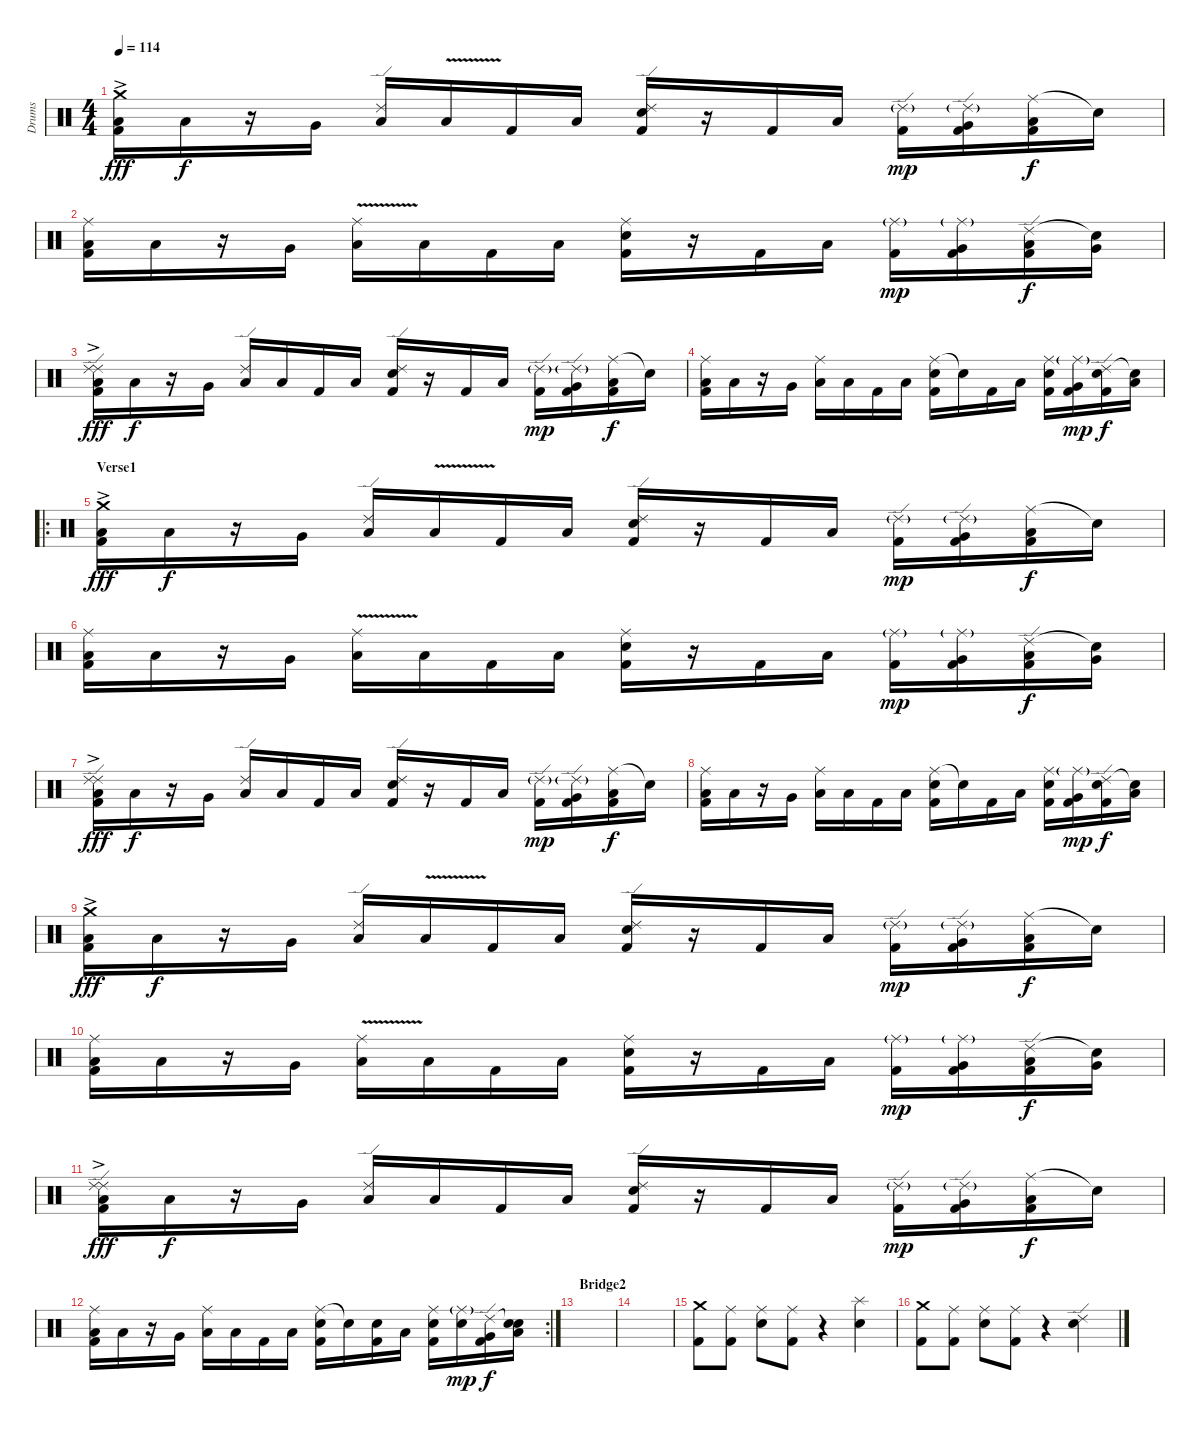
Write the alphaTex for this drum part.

\track ("Drums" "Drums") {instrument percussion}
\staff {score}
\articulation defaults
\ts (4 4)
\tempo 114
\clef neutral
\ks c
("Crash medium (hit)"{ac} "Low Floor Tom (hit)"{ac} "Kick (hit) 2"{ac}).16{dy fff} "Low Floor Tom (hit)".16{dy f} r.16 "Very Low Tom (hit)".16 ("Ride (edge) 2" "Low Floor Tom (hit)").16 "Low Floor Tom (hit)"{v}.16 "Kick (hit) 2".16 "Low Tom (hit)".16 ("Ride (edge) 2" "Electric Snare (hit)" "Kick (hit) 2").16 r.16 "Kick (hit) 2".16 "Low Floor Tom (hit)".16 ("Ride (edge) 2"{g} "Kick (hit) 2").16{dy mp} ("Ride (edge) 2"{g} "Very Low Tom (hit)" "Kick (hit) 2").16 ("Ride (middle)" "Low Tom (hit)" "Kick (hit) 2").16{dy f} "Snare (hit)"{t}.16 |
("Ride (middle)" "Low Floor Tom (hit)" "Kick (hit) 2").16 "Low Floor Tom (hit)".16 r.16 "Very Low Tom (hit)".16 ("Ride (middle)"{v} "Low Floor Tom (hit)").16 "Low Floor Tom (hit)".16 "Kick (hit) 2".16 "Low Tom (hit)".16 ("Ride (middle)" "Electric Snare (hit)" "Kick (hit) 2").16 r.16 "Kick (hit) 2".16 "Low Floor Tom (hit)".16 ("Ride (middle)"{g} "Kick (hit) 2").16{dy mp} ("Ride (middle)"{g} "Very Low Tom (hit)" "Kick (hit) 2").16 ("Ride (edge) 2" "Low Tom (hit)" "Kick (hit) 2").16{dy f} ("Snare (hit)"{t} "Very Low Tom (hit)").16 |
("Ride (edge) 2" "Ride (edge) 2"{ac} "Low Floor Tom (hit)" "Kick (hit) 2"{ac}).16{dy fff} "Low Floor Tom (hit)".16{dy f} r.16 "Very Low Tom (hit)".16 ("Ride (edge) 2" "Low Floor Tom (hit)").16 "Low Floor Tom (hit)".16 "Kick (hit) 2".16 "Low Tom (hit)".16 ("Ride (edge) 2" "Electric Snare (hit)" "Kick (hit) 2").16 r.16 "Kick (hit) 2".16 "Low Floor Tom (hit)".16 ("Ride (edge) 2"{g} "Kick (hit) 2").16{dy mp} ("Ride (edge) 2"{g} "Very Low Tom (hit)" "Kick (hit) 2").16 ("Ride (middle)" "Low Tom (hit)" "Kick (hit) 2").16{dy f} "Snare (hit)"{t}.16 |
("Ride (middle)" "Low Floor Tom (hit)" "Kick (hit) 2").16 "Low Floor Tom (hit)".16 r.16 "Very Low Tom (hit)".16 ("Ride (middle)" "Low Floor Tom (hit)").16 "Low Floor Tom (hit)".16 "Kick (hit) 2".16 "Low Tom (hit)".16 ("Ride (middle)" "Electric Snare (hit)"{tr (40 32)} "Kick (hit) 2").16 "Electric Snare (hit)"{t}.16 "Kick (hit) 2".16 "Low Floor Tom (hit)".16 ("Ride (middle)" "Electric Snare (hit)" "Kick (hit) 2").16 ("Ride (middle)"{g} "Very Low Tom (hit)" "Kick (hit) 2").16{dy mp} ("Ride (edge) 2" "Electric Snare (hit)" "Kick (hit) 2").16{dy f} ("Snare (hit)"{t} "Low Floor Tom (hit)").16 |
\ro
\section ("" "Verse1")
("Crash medium (hit)"{ac} "Low Floor Tom (hit)"{ac} "Kick (hit) 2"{ac}).16{dy fff} "Low Floor Tom (hit)".16{dy f} r.16 "Very Low Tom (hit)".16 ("Ride (edge) 2" "Low Floor Tom (hit)").16 "Low Floor Tom (hit)"{v}.16 "Kick (hit) 2".16 "Low Tom (hit)".16 ("Ride (edge) 2" "Electric Snare (hit)" "Kick (hit) 2").16 r.16 "Kick (hit) 2".16 "Low Floor Tom (hit)".16 ("Ride (edge) 2"{g} "Kick (hit) 2").16{dy mp} ("Ride (edge) 2"{g} "Very Low Tom (hit)" "Kick (hit) 2").16 ("Ride (middle)" "Low Tom (hit)" "Kick (hit) 2").16{dy f} "Snare (hit)"{t}.16 |
("Ride (middle)" "Low Floor Tom (hit)" "Kick (hit) 2").16 "Low Floor Tom (hit)".16 r.16 "Very Low Tom (hit)".16 ("Ride (middle)"{v} "Low Floor Tom (hit)").16 "Low Floor Tom (hit)".16 "Kick (hit) 2".16 "Low Tom (hit)".16 ("Ride (middle)" "Electric Snare (hit)" "Kick (hit) 2").16 r.16 "Kick (hit) 2".16 "Low Floor Tom (hit)".16 ("Ride (middle)"{g} "Kick (hit) 2").16{dy mp} ("Ride (middle)"{g} "Very Low Tom (hit)" "Kick (hit) 2").16 ("Ride (edge) 2" "Low Tom (hit)" "Kick (hit) 2").16{dy f} ("Snare (hit)"{t} "Very Low Tom (hit)").16 |
("Ride (edge) 2" "Ride (edge) 2"{ac} "Low Floor Tom (hit)" "Kick (hit) 2"{ac}).16{dy fff} "Low Floor Tom (hit)".16{dy f} r.16 "Very Low Tom (hit)".16 ("Ride (edge) 2" "Low Floor Tom (hit)").16 "Low Floor Tom (hit)".16 "Kick (hit) 2".16 "Low Tom (hit)".16 ("Ride (edge) 2" "Electric Snare (hit)" "Kick (hit) 2").16 r.16 "Kick (hit) 2".16 "Low Floor Tom (hit)".16 ("Ride (edge) 2"{g} "Kick (hit) 2").16{dy mp} ("Ride (edge) 2"{g} "Very Low Tom (hit)" "Kick (hit) 2").16 ("Ride (middle)" "Low Tom (hit)" "Kick (hit) 2").16{dy f} "Snare (hit)"{t}.16 |
("Ride (middle)" "Low Floor Tom (hit)" "Kick (hit) 2").16 "Low Floor Tom (hit)".16 r.16 "Very Low Tom (hit)".16 ("Ride (middle)" "Low Floor Tom (hit)").16 "Low Floor Tom (hit)".16 "Kick (hit) 2".16 "Low Tom (hit)".16 ("Ride (middle)" "Electric Snare (hit)"{tr (40 32)} "Kick (hit) 2").16 "Electric Snare (hit)"{t}.16 "Kick (hit) 2".16 "Low Floor Tom (hit)".16 ("Ride (middle)" "Electric Snare (hit)" "Kick (hit) 2").16 ("Ride (middle)"{g} "Very Low Tom (hit)" "Kick (hit) 2").16{dy mp} ("Ride (edge) 2" "Electric Snare (hit)" "Kick (hit) 2").16{dy f} ("Snare (hit)"{t} "Low Floor Tom (hit)").16 |
("Crash medium (hit)"{ac} "Low Floor Tom (hit)"{ac} "Kick (hit) 2"{ac}).16{dy fff} "Low Floor Tom (hit)".16{dy f} r.16 "Very Low Tom (hit)".16 ("Ride (edge) 2" "Low Floor Tom (hit)").16 "Low Floor Tom (hit)"{v}.16 "Kick (hit) 2".16 "Low Tom (hit)".16 ("Ride (edge) 2" "Electric Snare (hit)" "Kick (hit) 2").16 r.16 "Kick (hit) 2".16 "Low Floor Tom (hit)".16 ("Ride (edge) 2"{g} "Kick (hit) 2").16{dy mp} ("Ride (edge) 2"{g} "Very Low Tom (hit)" "Kick (hit) 2").16 ("Ride (middle)" "Low Tom (hit)" "Kick (hit) 2").16{dy f} "Snare (hit)"{t}.16 |
("Ride (middle)" "Low Floor Tom (hit)" "Kick (hit) 2").16 "Low Floor Tom (hit)".16 r.16 "Very Low Tom (hit)".16 ("Ride (middle)"{v} "Low Floor Tom (hit)").16 "Low Floor Tom (hit)".16 "Kick (hit) 2".16 "Low Tom (hit)".16 ("Ride (middle)" "Electric Snare (hit)" "Kick (hit) 2").16 r.16 "Kick (hit) 2".16 "Low Floor Tom (hit)".16 ("Ride (middle)"{g} "Kick (hit) 2").16{dy mp} ("Ride (middle)"{g} "Very Low Tom (hit)" "Kick (hit) 2").16 ("Ride (edge) 2" "Low Tom (hit)" "Kick (hit) 2").16{dy f} ("Snare (hit)"{t} "Very Low Tom (hit)").16 |
("Ride (edge) 2" "Ride (edge) 2"{ac} "Low Floor Tom (hit)" "Kick (hit) 2"{ac}).16{dy fff} "Low Floor Tom (hit)".16{dy f} r.16 "Very Low Tom (hit)".16 ("Ride (edge) 2" "Low Floor Tom (hit)").16 "Low Floor Tom (hit)".16 "Kick (hit) 2".16 "Low Tom (hit)".16 ("Ride (edge) 2" "Electric Snare (hit)" "Kick (hit) 2").16 r.16 "Kick (hit) 2".16 "Low Floor Tom (hit)".16 ("Ride (edge) 2"{g} "Kick (hit) 2").16{dy mp} ("Ride (edge) 2"{g} "Very Low Tom (hit)" "Kick (hit) 2").16 ("Ride (middle)" "Low Tom (hit)" "Kick (hit) 2").16{dy f} "Snare (hit)"{t}.16 |
\rc 2
("Ride (middle)" "Low Floor Tom (hit)" "Kick (hit) 2").16 "Low Floor Tom (hit)".16 r.16 "Very Low Tom (hit)".16 ("Ride (middle)" "Low Floor Tom (hit)").16 "Low Floor Tom (hit)".16 "Kick (hit) 2".16 "Low Tom (hit)".16 ("Ride (middle)" "Electric Snare (hit)"{tr (40 32)} "Kick (hit) 2").16 "Electric Snare (hit)"{t}.16 ("Electric Snare (hit)" "Kick (hit) 2").16 "Low Floor Tom (hit)".16 ("Ride (middle)" "Electric Snare (hit)" "Kick (hit) 2").16 ("Ride (middle)"{g} "Electric Snare (hit)").16{dy mp} ("Ride (edge) 2" "Very Low Tom (hit)" "Kick (hit) 2").16{dy f} ("Snare (hit)"{t} "Electric Snare (hit)" "Low Floor Tom (hit)").16 |
\section ("" "Bridge2")
|
|
("Crash medium (hit)" "Kick (hit) 2").8 ("Ride (middle)" "Kick (hit) 2").8 ("Ride (middle)" "Electric Snare (hit)").8 ("Ride (middle)" "Kick (hit) 2").8 r.4 ("Splash (hit)" "Electric Snare (hit)").4 |
("Crash medium (hit)" "Kick (hit) 2").8 ("Ride (middle)" "Kick (hit) 2").8 ("Ride (middle)" "Electric Snare (hit)").8 ("Ride (middle)" "Kick (hit) 2").8 r.4 ("Ride (edge) 2" "Electric Snare (hit)").4
